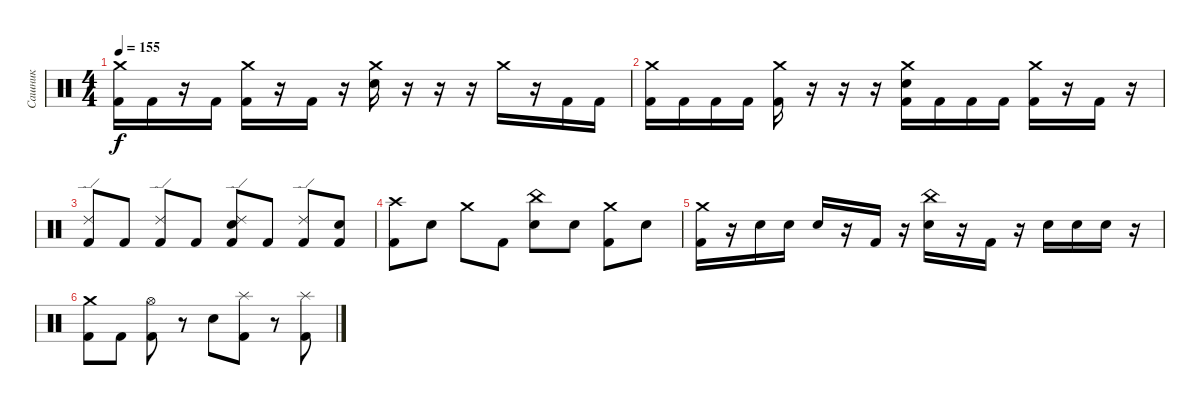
\track ("Сашник" "Сашник") {instrument percussion}
\staff {score}
\articulation defaults
\ts (4 4)
\tempo 155
\clef neutral
\ks c
("Crash medium (hit)" "Kick (hit) 2").16{dy f} "Kick (hit) 2".16 r.16 "Kick (hit) 2".16 ("Crash medium (hit)" "Kick (hit) 2").16 r.16 "Kick (hit) 2".16 r.16 ("Crash medium (hit)" "Electric Snare (hit)").16 r.16 r.16 r.16 "Crash medium (hit)".16 r.16 "Kick (hit) 2".16 "Kick (hit) 2".16 |
("Crash medium (hit)" "Kick (hit) 2").16 "Kick (hit) 2".16 "Kick (hit) 2".16 "Kick (hit) 2".16 ("Crash medium (hit)" "Kick (hit) 2").16 r.16 r.16 r.16 ("Crash medium (hit)" "Electric Snare (hit)" "Kick (hit) 2").16 "Kick (hit) 2".16 "Kick (hit) 2".16 "Kick (hit) 2".16 ("Crash medium (hit)" "Kick (hit) 2").16 r.16 "Kick (hit) 2".16 r.16 |
("Ride (edge) 2" "Kick (hit) 2").8 "Kick (hit) 2".8 ("Ride (edge) 2" "Kick (hit) 2").8 "Kick (hit) 2".8 ("Ride (edge) 2" "Electric Snare (hit)" "Kick (hit) 2").8 "Kick (hit) 2".8 ("Ride (edge) 2" "Kick (hit) 2").8 ("Electric Snare (hit)" "Kick (hit) 2").8 |
("Crash high (hit)" "Kick (hit) 2").8 "Electric Snare (hit)".8 "Crash medium (hit)".8 "Kick (hit) 2".8 ("China (hit)" "Electric Snare (hit)").8 "Electric Snare (hit)".8 ("Crash medium (hit)" "Kick (hit) 2").8 "Electric Snare (hit)".8 |
("Crash medium (hit)" "Kick (hit) 2").16 r.16 "Electric Snare (hit)".16 "Electric Snare (hit)".16 "Electric Snare (hit)".16 r.16 "Kick (hit) 2".16 r.16 ("China (hit)" "Electric Snare (hit)").16 r.16 "Kick (hit) 2".16 r.16 "Electric Snare (hit)".16 "Electric Snare (hit)".16 "Electric Snare (hit)".16 r.16 |
("Crash medium (hit)" "Kick (hit) 2").8 "Kick (hit) 2".8 ("Hi-Hat (open)" "Kick (hit) 2").8 r.8 "Electric Snare (hit)".8 ("Splash (hit)" "Kick (hit) 2").8 r.8 ("Splash (hit)" "Kick (hit) 2").8
